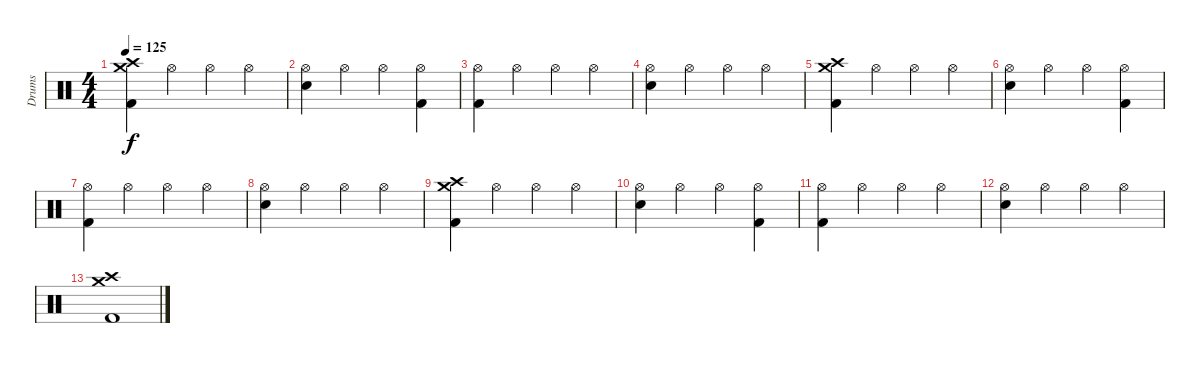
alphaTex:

\track ("Drums" "Drums") {instrument percussion}
\staff {score}
\articulation defaults
\ts (4 4)
\tempo 125
\clef neutral
\ks c
("Crash medium (hit)" "Crash high (hit)" "Kick (hit) 2").4{dy f} "Hi-Hat (open)".4 "Hi-Hat (open)".4 "Hi-Hat (open)".4 |
("Hi-Hat (open)" "Snare (hit) 2").4 "Hi-Hat (open)".4 "Hi-Hat (open)".4 ("Hi-Hat (open)" "Kick (hit) 2").4 |
("Hi-Hat (open)" "Kick (hit) 2").4 "Hi-Hat (open)".4 "Hi-Hat (open)".4 "Hi-Hat (open)".4 |
("Hi-Hat (open)" "Snare (hit) 2").4 "Hi-Hat (open)".4 "Hi-Hat (open)".4 "Hi-Hat (open)".4 |
("Crash medium (hit)" "Crash high (hit)" "Kick (hit) 2").4 "Hi-Hat (open)".4 "Hi-Hat (open)".4 "Hi-Hat (open)".4 |
("Hi-Hat (open)" "Snare (hit) 2").4 "Hi-Hat (open)".4 "Hi-Hat (open)".4 ("Hi-Hat (open)" "Kick (hit) 2").4 |
("Hi-Hat (open)" "Kick (hit) 2").4 "Hi-Hat (open)".4 "Hi-Hat (open)".4 "Hi-Hat (open)".4 |
("Hi-Hat (open)" "Snare (hit) 2").4 "Hi-Hat (open)".4 "Hi-Hat (open)".4 "Hi-Hat (open)".4 |
("Crash medium (hit)" "Crash high (hit)" "Kick (hit) 2").4 "Hi-Hat (open)".4 "Hi-Hat (open)".4 "Hi-Hat (open)".4 |
("Hi-Hat (open)" "Snare (hit) 2").4 "Hi-Hat (open)".4 "Hi-Hat (open)".4 ("Hi-Hat (open)" "Kick (hit) 2").4 |
("Hi-Hat (open)" "Kick (hit) 2").4 "Hi-Hat (open)".4 "Hi-Hat (open)".4 "Hi-Hat (open)".4 |
("Hi-Hat (open)" "Snare (hit) 2").4 "Hi-Hat (open)".4 "Hi-Hat (open)".4 "Hi-Hat (open)".4 |
("Crash medium (hit)" "Crash high (hit)" "Kick (hit) 2").1
